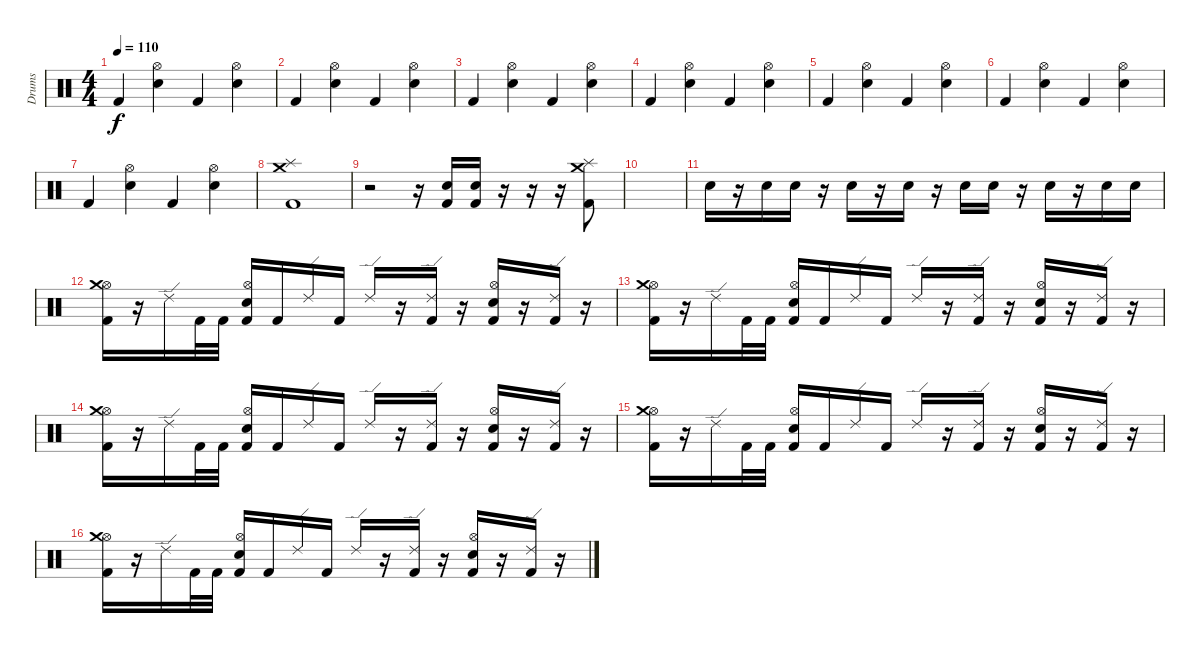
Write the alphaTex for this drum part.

\track ("Drums" "Drums") {instrument percussion}
\staff {score}
\articulation defaults
\ts (4 4)
\tempo 110
\clef neutral
\ks c "Kick (hit) 2".4{dy f}
("Hi-Hat (open)" "Electric Snare (hit)").4 "Kick (hit) 2".4 ("Hi-Hat (open)" "Electric Snare (hit)").4 |
"Kick (hit) 2".4 ("Hi-Hat (open)" "Electric Snare (hit)").4 "Kick (hit) 2".4 ("Hi-Hat (open)" "Electric Snare (hit)").4 |
"Kick (hit) 2".4 ("Hi-Hat (open)" "Electric Snare (hit)").4 "Kick (hit) 2".4 ("Hi-Hat (open)" "Electric Snare (hit)").4 |
"Kick (hit) 2".4 ("Hi-Hat (open)" "Electric Snare (hit)").4 "Kick (hit) 2".4 ("Hi-Hat (open)" "Electric Snare (hit)").4 |
"Kick (hit) 2".4 ("Hi-Hat (open)" "Electric Snare (hit)").4 "Kick (hit) 2".4 ("Hi-Hat (open)" "Electric Snare (hit)").4 |
"Kick (hit) 2".4 ("Hi-Hat (open)" "Electric Snare (hit)").4 "Kick (hit) 2".4 ("Hi-Hat (open)" "Electric Snare (hit)").4 |
"Kick (hit) 2".4 ("Hi-Hat (open)" "Electric Snare (hit)").4 "Kick (hit) 2".4 ("Hi-Hat (open)" "Electric Snare (hit)").4 |
("Kick (hit) 2" "Splash (hit)" "Crash medium (hit)").1 |
r.2 r.16 ("Kick (hit) 2" "Electric Snare (hit)").16 ("Kick (hit) 2" "Electric Snare (hit)").16 r.16 r.16 r.16 ("Kick (hit) 2" "Splash (hit)" "Crash medium (hit)").8 |
|
"Electric Snare (hit)".16 r.16 "Electric Snare (hit)".16 "Electric Snare (hit)".16 r.16 "Electric Snare (hit)".16 r.16 "Electric Snare (hit)".16 r.16 "Electric Snare (hit)".16 "Electric Snare (hit)".16 r.16 "Electric Snare (hit)".16 r.16 "Electric Snare (hit)".16 "Electric Snare (hit)".16 |
("Kick (hit) 2" "Hi-Hat (open)" "Crash medium (hit)").16 r.16 "Ride (edge) 2".16 "Kick (hit) 2".32 "Kick (hit) 2".32 ("Kick (hit) 2" "Hi-Hat (open)" "Electric Snare (hit)").16 "Kick (hit) 2".16 "Ride (edge) 2".16 "Kick (hit) 2".16 "Ride (edge) 2".16 r.16 ("Kick (hit) 2" "Ride (edge) 2").16 r.16 ("Kick (hit) 2" "Hi-Hat (open)" "Electric Snare (hit)").16 r.16 ("Kick (hit) 2" "Ride (edge) 2").16 r.16 |
("Kick (hit) 2" "Hi-Hat (open)" "Crash medium (hit)").16 r.16 "Ride (edge) 2".16 "Kick (hit) 2".32 "Kick (hit) 2".32 ("Kick (hit) 2" "Hi-Hat (open)" "Electric Snare (hit)").16 "Kick (hit) 2".16 "Ride (edge) 2".16 "Kick (hit) 2".16 "Ride (edge) 2".16 r.16 ("Kick (hit) 2" "Ride (edge) 2").16 r.16 ("Kick (hit) 2" "Hi-Hat (open)" "Electric Snare (hit)").16 r.16 ("Kick (hit) 2" "Ride (edge) 2").16 r.16 |
("Kick (hit) 2" "Hi-Hat (open)" "Crash medium (hit)").16 r.16 "Ride (edge) 2".16 "Kick (hit) 2".32 "Kick (hit) 2".32 ("Kick (hit) 2" "Hi-Hat (open)" "Electric Snare (hit)").16 "Kick (hit) 2".16 "Ride (edge) 2".16 "Kick (hit) 2".16 "Ride (edge) 2".16 r.16 ("Kick (hit) 2" "Ride (edge) 2").16 r.16 ("Kick (hit) 2" "Hi-Hat (open)" "Electric Snare (hit)").16 r.16 ("Kick (hit) 2" "Ride (edge) 2").16 r.16 |
("Kick (hit) 2" "Hi-Hat (open)" "Crash medium (hit)").16 r.16 "Ride (edge) 2".16 "Kick (hit) 2".32 "Kick (hit) 2".32 ("Kick (hit) 2" "Hi-Hat (open)" "Electric Snare (hit)").16 "Kick (hit) 2".16 "Ride (edge) 2".16 "Kick (hit) 2".16 "Ride (edge) 2".16 r.16 ("Kick (hit) 2" "Ride (edge) 2").16 r.16 ("Kick (hit) 2" "Hi-Hat (open)" "Electric Snare (hit)").16 r.16 ("Kick (hit) 2" "Ride (edge) 2").16 r.16 |
("Kick (hit) 2" "Hi-Hat (open)" "Crash medium (hit)").16 r.16 "Ride (edge) 2".16 "Kick (hit) 2".32 "Kick (hit) 2".32 ("Kick (hit) 2" "Hi-Hat (open)" "Electric Snare (hit)").16 "Kick (hit) 2".16 "Ride (edge) 2".16 "Kick (hit) 2".16 "Ride (edge) 2".16 r.16 ("Kick (hit) 2" "Ride (edge) 2").16 r.16 ("Kick (hit) 2" "Hi-Hat (open)" "Electric Snare (hit)").16 r.16 ("Kick (hit) 2" "Ride (edge) 2").16 r.16
